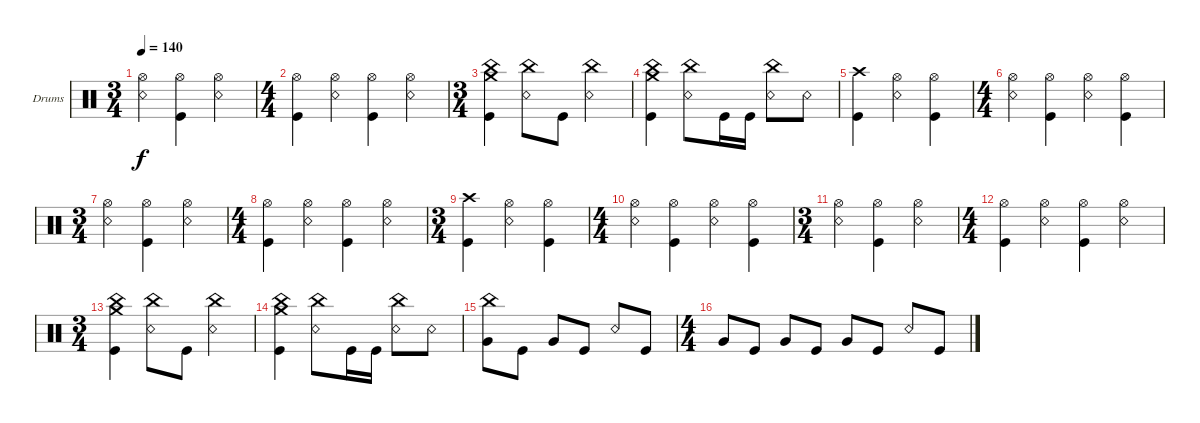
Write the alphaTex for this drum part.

\defaultSystemsLayout 4
\bracketExtendMode groupsimilarinstruments
\firstSystemTrackNameOrientation horizontal
\otherSystemsTrackNameOrientation horizontal
\track ("Drumkit" "Drums") {instrument percussion}
\staff {score}
\articulation defaults
\ts (3 4)
\tempo 140
\clef neutral
\ks c
("Hi-Hat (open)" "Snare (rim shot)").4{dy f} ("Hi-Hat (open)" "Kick (hit)").4 ("Hi-Hat (open)" "Snare (rim shot)").4 |
\ts (4 4)
("Hi-Hat (open)" "Kick (hit)").4 ("Hi-Hat (open)" "Snare (rim shot)").4 ("Hi-Hat (open)" "Kick (hit)").4 ("Hi-Hat (open)" "Snare (rim shot)").4 |
\ts (3 4)
("Crash medium (hit)" "China (hit)" "Kick (hit)").4 ("Snare (rim shot)" "China (hit)").8 "Kick (hit)".8 ("Snare (rim shot)" "China (hit)").4 |
("Crash medium (hit)" "China (hit)" "Kick (hit)").4 ("Snare (rim shot)" "China (hit)").8 "Kick (hit)".16 "Kick (hit)".16 ("Snare (rim shot)" "China (hit)").8 "Snare (rim shot)".8 |
("Crash high (hit)" "Kick (hit)").4 ("Hi-Hat (open)" "Snare (rim shot)").4 ("Hi-Hat (open)" "Kick (hit)").4 |
\ts (4 4)
("Hi-Hat (open)" "Snare (rim shot)").4 ("Hi-Hat (open)" "Kick (hit)").4 ("Hi-Hat (open)" "Snare (rim shot)").4 ("Hi-Hat (open)" "Kick (hit)").4 |
\ts (3 4)
("Hi-Hat (open)" "Snare (rim shot)").4 ("Hi-Hat (open)" "Kick (hit)").4 ("Hi-Hat (open)" "Snare (rim shot)").4 |
\ts (4 4)
("Hi-Hat (open)" "Kick (hit)").4 ("Hi-Hat (open)" "Snare (rim shot)").4 ("Hi-Hat (open)" "Kick (hit)").4 ("Hi-Hat (open)" "Snare (rim shot)").4 |
\ts (3 4)
("Crash high (hit)" "Kick (hit)").4 ("Hi-Hat (open)" "Snare (rim shot)").4 ("Hi-Hat (open)" "Kick (hit)").4 |
\ts (4 4)
("Hi-Hat (open)" "Snare (rim shot)").4 ("Hi-Hat (open)" "Kick (hit)").4 ("Hi-Hat (open)" "Snare (rim shot)").4 ("Hi-Hat (open)" "Kick (hit)").4 |
\ts (3 4)
("Hi-Hat (open)" "Snare (rim shot)").4 ("Hi-Hat (open)" "Kick (hit)").4 ("Hi-Hat (open)" "Snare (rim shot)").4 |
\ts (4 4)
("Hi-Hat (open)" "Kick (hit)").4 ("Hi-Hat (open)" "Snare (rim shot)").4 ("Hi-Hat (open)" "Kick (hit)").4 ("Hi-Hat (open)" "Snare (rim shot)").4 |
\ts (3 4)
("Crash medium (hit)" "China (hit)" "Kick (hit)").4 ("Snare (rim shot)" "China (hit)").8 "Kick (hit)".8 ("Snare (rim shot)" "China (hit)").4 |
("Crash medium (hit)" "China (hit)" "Kick (hit)").4 ("Snare (rim shot)" "China (hit)").8 "Kick (hit)".16 "Kick (hit)".16 ("Snare (rim shot)" "China (hit)").8 "Snare (rim shot)".8 |
("Very Low Tom (hit)" "China (hit)").8 "Kick (hit)".8 "Very Low Tom (hit)".8 "Kick (hit)".8 "Snare (rim shot)".8 "Kick (hit)".8 |
\ts (4 4)
"Very Low Tom (hit)".8 "Kick (hit)".8 "Very Low Tom (hit)".8 "Kick (hit)".8 "Very Low Tom (hit)".8 "Kick (hit)".8 "Snare (rim shot)".8 "Kick (hit)".8
